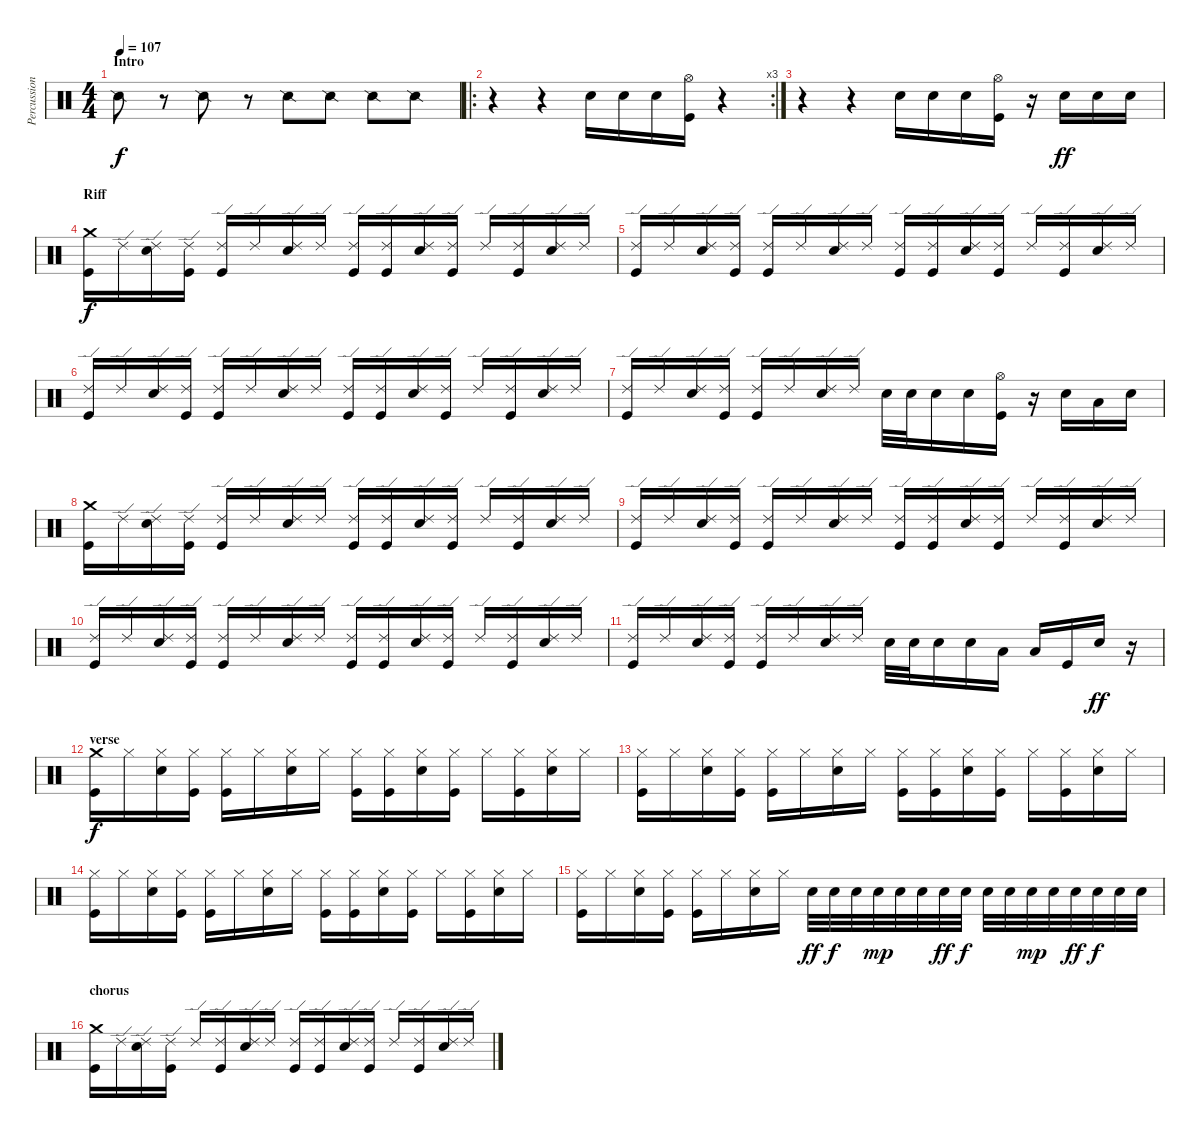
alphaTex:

\track ("Percussion" "Percussion") {instrument percussion}
\staff {score}
\articulation defaults
\ts (4 4)
\section ("" "Intro")
\tempo 107
\clef neutral
\ks c "Snare (side stick) 2".8{dy f}
r.8 "Snare (side stick) 2".8 r.8 "Snare (side stick) 2".8 "Snare (side stick) 2".8 "Snare (side stick) 2".8 "Snare (side stick) 2".8 |
\ro
\rc 3
r.4 r.4 "Electric Snare (hit)".16 "Electric Snare (hit)".16 "Electric Snare (hit)".16 ("Hi-Hat (open)" "Kick (hit)").16 r.4 |
r.4 r.4 "Electric Snare (hit)".16 "Electric Snare (hit)".16 "Electric Snare (hit)".16 ("Hi-Hat (open)" "Kick (hit)").16 r.16 "Electric Snare (hit)".16{dy ff} "Electric Snare (hit)".16 "Electric Snare (hit)".16 |
\section ("" "Riff")
("Crash medium (hit)" "Kick (hit)").16{dy f} "Ride (edge) 2".16 ("Ride (edge) 2" "Electric Snare (hit)").16 ("Ride (edge) 2" "Kick (hit)").16 ("Ride (edge) 2" "Kick (hit)").16 "Ride (edge) 2".16 ("Ride (edge) 2" "Electric Snare (hit)").16 "Ride (edge) 2".16 ("Ride (edge) 2" "Kick (hit)").16 ("Ride (edge) 2" "Kick (hit)").16 ("Ride (edge) 2" "Electric Snare (hit)").16 ("Ride (edge) 2" "Kick (hit)").16 "Ride (edge) 2".16 ("Ride (edge) 2" "Kick (hit)").16 ("Ride (edge) 2" "Electric Snare (hit)").16 "Ride (edge) 2".16 |
("Ride (edge) 2" "Kick (hit)").16 "Ride (edge) 2".16 ("Ride (edge) 2" "Electric Snare (hit)").16 ("Ride (edge) 2" "Kick (hit)").16 ("Ride (edge) 2" "Kick (hit)").16 "Ride (edge) 2".16 ("Ride (edge) 2" "Electric Snare (hit)").16 "Ride (edge) 2".16 ("Ride (edge) 2" "Kick (hit)").16 ("Ride (edge) 2" "Kick (hit)").16 ("Ride (edge) 2" "Electric Snare (hit)").16 ("Ride (edge) 2" "Kick (hit)").16 "Ride (edge) 2".16 ("Ride (edge) 2" "Kick (hit)").16 ("Ride (edge) 2" "Electric Snare (hit)").16 "Ride (edge) 2".16 |
("Ride (edge) 2" "Kick (hit)").16 "Ride (edge) 2".16 ("Ride (edge) 2" "Electric Snare (hit)").16 ("Ride (edge) 2" "Kick (hit)").16 ("Ride (edge) 2" "Kick (hit)").16 "Ride (edge) 2".16 ("Ride (edge) 2" "Electric Snare (hit)").16 "Ride (edge) 2".16 ("Ride (edge) 2" "Kick (hit)").16 ("Ride (edge) 2" "Kick (hit)").16 ("Ride (edge) 2" "Electric Snare (hit)").16 ("Ride (edge) 2" "Kick (hit)").16 "Ride (edge) 2".16 ("Ride (edge) 2" "Kick (hit)").16 ("Ride (edge) 2" "Electric Snare (hit)").16 "Ride (edge) 2".16 |
("Ride (edge) 2" "Kick (hit)").16 "Ride (edge) 2".16 ("Ride (edge) 2" "Electric Snare (hit)").16 ("Ride (edge) 2" "Kick (hit)").16 ("Ride (edge) 2" "Kick (hit)").16 "Ride (edge) 2".16 ("Ride (edge) 2" "Electric Snare (hit)").16 "Ride (edge) 2".16 "Electric Snare (hit)".32 "Electric Snare (hit)".32 "Electric Snare (hit)".16 "Electric Snare (hit)".16 ("Hi-Hat (open)" "Kick (hit)").16 r.16 "Electric Snare (hit)".16 "Low Tom (hit)".16 "Electric Snare (hit)".16 |
("Crash medium (hit)" "Kick (hit)").16 "Ride (edge) 2".16 ("Ride (edge) 2" "Electric Snare (hit)").16 ("Ride (edge) 2" "Kick (hit)").16 ("Ride (edge) 2" "Kick (hit)").16 "Ride (edge) 2".16 ("Ride (edge) 2" "Electric Snare (hit)").16 "Ride (edge) 2".16 ("Ride (edge) 2" "Kick (hit)").16 ("Ride (edge) 2" "Kick (hit)").16 ("Ride (edge) 2" "Electric Snare (hit)").16 ("Ride (edge) 2" "Kick (hit)").16 "Ride (edge) 2".16 ("Ride (edge) 2" "Kick (hit)").16 ("Ride (edge) 2" "Electric Snare (hit)").16 "Ride (edge) 2".16 |
("Ride (edge) 2" "Kick (hit)").16 "Ride (edge) 2".16 ("Ride (edge) 2" "Electric Snare (hit)").16 ("Ride (edge) 2" "Kick (hit)").16 ("Ride (edge) 2" "Kick (hit)").16 "Ride (edge) 2".16 ("Ride (edge) 2" "Electric Snare (hit)").16 "Ride (edge) 2".16 ("Ride (edge) 2" "Kick (hit)").16 ("Ride (edge) 2" "Kick (hit)").16 ("Ride (edge) 2" "Electric Snare (hit)").16 ("Ride (edge) 2" "Kick (hit)").16 "Ride (edge) 2".16 ("Ride (edge) 2" "Kick (hit)").16 ("Ride (edge) 2" "Electric Snare (hit)").16 "Ride (edge) 2".16 |
("Ride (edge) 2" "Kick (hit)").16 "Ride (edge) 2".16 ("Ride (edge) 2" "Electric Snare (hit)").16 ("Ride (edge) 2" "Kick (hit)").16 ("Ride (edge) 2" "Kick (hit)").16 "Ride (edge) 2".16 ("Ride (edge) 2" "Electric Snare (hit)").16 "Ride (edge) 2".16 ("Ride (edge) 2" "Kick (hit)").16 ("Ride (edge) 2" "Kick (hit)").16 ("Ride (edge) 2" "Electric Snare (hit)").16 ("Ride (edge) 2" "Kick (hit)").16 "Ride (edge) 2".16 ("Ride (edge) 2" "Kick (hit)").16 ("Ride (edge) 2" "Electric Snare (hit)").16 "Ride (edge) 2".16 |
("Ride (edge) 2" "Kick (hit)").16 "Ride (edge) 2".16 ("Ride (edge) 2" "Electric Snare (hit)").16 ("Ride (edge) 2" "Kick (hit)").16 ("Ride (edge) 2" "Kick (hit)").16 "Ride (edge) 2".16 ("Ride (edge) 2" "Electric Snare (hit)").16 "Ride (edge) 2".16 "Electric Snare (hit)".32 "Electric Snare (hit)".32 "Electric Snare (hit)".16 "Electric Snare (hit)".16 "Low Tom (hit)".16 "Low Tom (hit)".16 "Kick (hit)".16 "Electric Snare (hit)".16{dy ff} r.16 |
\section ("" "verse")
("Crash medium (hit)" "Kick (hit)").16{dy f} "Hi-Hat (closed)".16 ("Hi-Hat (closed)" "Electric Snare (hit)").16 ("Hi-Hat (closed)" "Kick (hit)").16 ("Hi-Hat (closed)" "Kick (hit)").16 "Hi-Hat (closed)".16 ("Hi-Hat (closed)" "Electric Snare (hit)").16 "Hi-Hat (closed)".16 ("Hi-Hat (closed)" "Kick (hit)").16 ("Hi-Hat (closed)" "Kick (hit)").16 ("Hi-Hat (closed)" "Electric Snare (hit)").16 ("Hi-Hat (closed)" "Kick (hit)").16 "Hi-Hat (closed)".16 ("Hi-Hat (closed)" "Kick (hit)").16 ("Hi-Hat (closed)" "Electric Snare (hit)").16 "Hi-Hat (closed)".16 |
("Hi-Hat (closed)" "Kick (hit)").16 "Hi-Hat (closed)".16 ("Hi-Hat (closed)" "Electric Snare (hit)").16 ("Hi-Hat (closed)" "Kick (hit)").16 ("Hi-Hat (closed)" "Kick (hit)").16 "Hi-Hat (closed)".16 ("Hi-Hat (closed)" "Electric Snare (hit)").16 "Hi-Hat (closed)".16 ("Hi-Hat (closed)" "Kick (hit)").16 ("Hi-Hat (closed)" "Kick (hit)").16 ("Hi-Hat (closed)" "Electric Snare (hit)").16 ("Hi-Hat (closed)" "Kick (hit)").16 "Hi-Hat (closed)".16 ("Hi-Hat (closed)" "Kick (hit)").16 ("Hi-Hat (closed)" "Electric Snare (hit)").16 "Hi-Hat (closed)".16 |
("Hi-Hat (closed)" "Kick (hit)").16 "Hi-Hat (closed)".16 ("Hi-Hat (closed)" "Electric Snare (hit)").16 ("Hi-Hat (closed)" "Kick (hit)").16 ("Hi-Hat (closed)" "Kick (hit)").16 "Hi-Hat (closed)".16 ("Hi-Hat (closed)" "Electric Snare (hit)").16 "Hi-Hat (closed)".16 ("Hi-Hat (closed)" "Kick (hit)").16 ("Hi-Hat (closed)" "Kick (hit)").16 ("Hi-Hat (closed)" "Electric Snare (hit)").16 ("Hi-Hat (closed)" "Kick (hit)").16 "Hi-Hat (closed)".16 ("Hi-Hat (closed)" "Kick (hit)").16 ("Hi-Hat (closed)" "Electric Snare (hit)").16 "Hi-Hat (closed)".16 |
("Hi-Hat (closed)" "Kick (hit)").16 "Hi-Hat (closed)".16 ("Hi-Hat (closed)" "Electric Snare (hit)").16 ("Hi-Hat (closed)" "Kick (hit)").16 ("Hi-Hat (closed)" "Kick (hit)").16 "Hi-Hat (closed)".16 ("Hi-Hat (closed)" "Electric Snare (hit)").16 "Hi-Hat (closed)".16 "Electric Snare (hit)".32{dy ff} "Electric Snare (hit)".32{dy f} "Electric Snare (hit)".32 "Electric Snare (hit)".32{dy mp} "Electric Snare (hit)".32 "Electric Snare (hit)".32 "Electric Snare (hit)".32{dy ff} "Electric Snare (hit)".32{dy f} "Electric Snare (hit)".32 "Electric Snare (hit)".32 "Electric Snare (hit)".32{dy mp} "Electric Snare (hit)".32 "Electric Snare (hit)".32{dy ff} "Electric Snare (hit)".32{dy f} "Electric Snare (hit)".32 "Electric Snare (hit)".32 |
\section ("" "chorus")
("Crash medium (hit)" "Kick (hit)").16 "Ride (edge) 2".16 ("Ride (edge) 2" "Electric Snare (hit)").16 ("Ride (edge) 2" "Kick (hit)").16 "Ride (edge) 2".16 ("Ride (edge) 2" "Kick (hit)").16 ("Ride (edge) 2" "Electric Snare (hit)").16 "Ride (edge) 2".16 ("Ride (edge) 2" "Kick (hit)").16 ("Ride (edge) 2" "Kick (hit)").16 ("Ride (edge) 2" "Electric Snare (hit)").16 ("Ride (edge) 2" "Kick (hit)").16 "Ride (edge) 2".16 ("Ride (edge) 2" "Kick (hit)").16 ("Ride (edge) 2" "Electric Snare (hit)").16 "Ride (edge) 2".16
